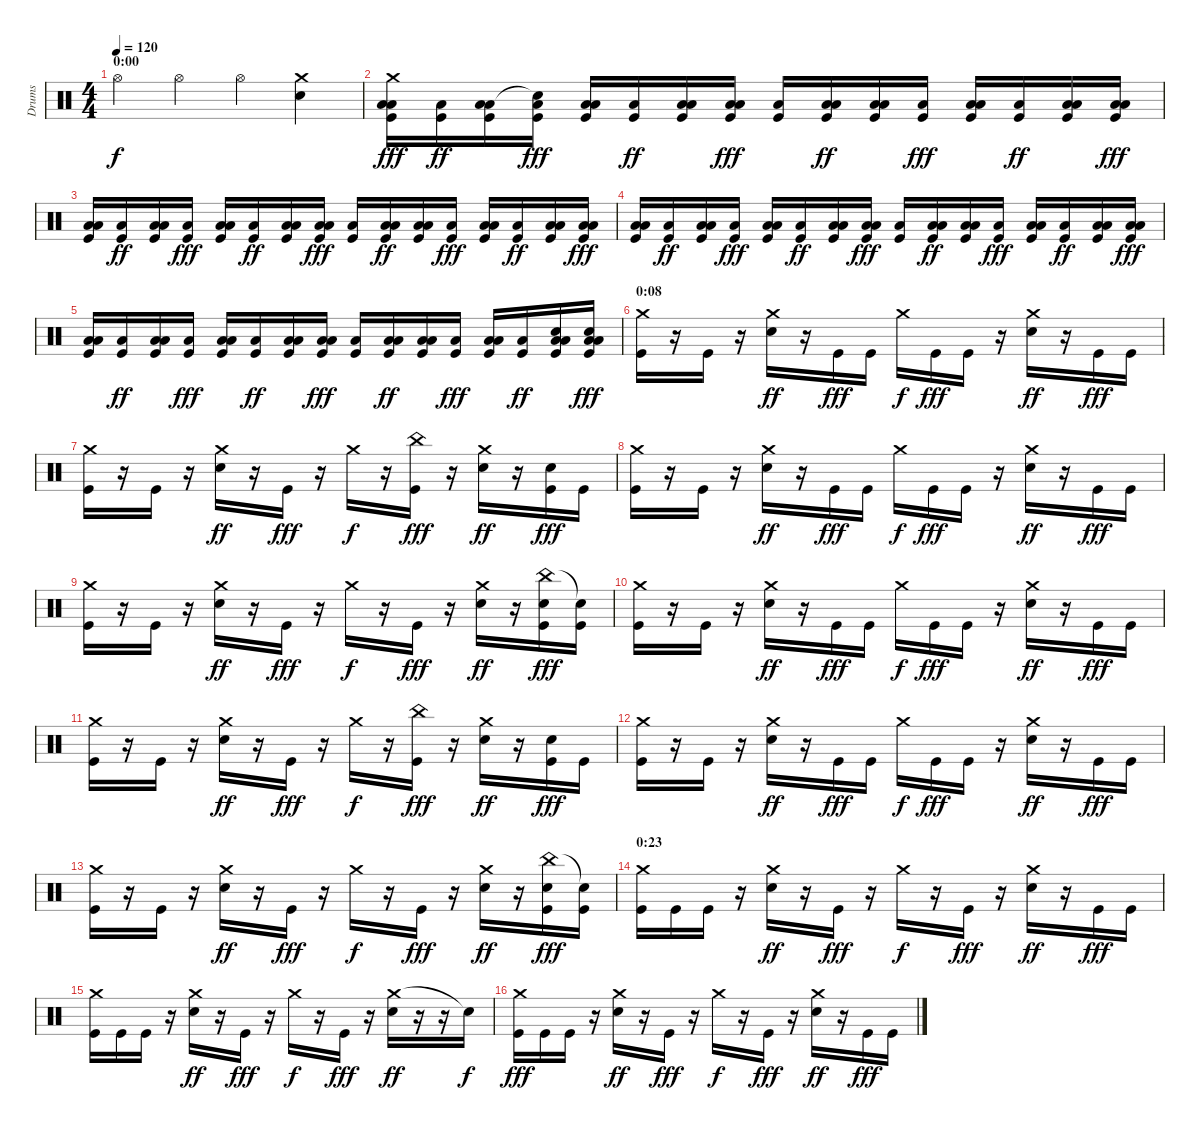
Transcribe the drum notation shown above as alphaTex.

\track ("Drums" "Drums") {instrument percussion}
\staff {score}
\articulation defaults
\ts (4 4)
\section ("" "0:00")
\tempo 120
\clef neutral
\ks c "Hi-Hat (open)".4{dy f} "Hi-Hat (open)".4 "Hi-Hat (open)".4
("Electric Snare (hit)" "Crash medium (hit)").4 |
("Crash medium (hit)" "Low Floor Tom (hit)" "Low Tom (hit)" "Kick (hit)").16{dy fff} ("Low Floor Tom (hit)" "Kick (hit)").16{dy ff} ("Low Floor Tom (hit)" "Low Floor Tom (hit)" "Kick (hit)").16 ("Snare (hit)"{t} "Low Floor Tom (hit)" "Kick (hit)").16{dy fff} ("Low Floor Tom (hit)" "Low Floor Tom (hit)" "Kick (hit)").16 ("Low Floor Tom (hit)" "Kick (hit)").16{dy ff} ("Low Floor Tom (hit)" "Low Floor Tom (hit)" "Kick (hit)").16 ("Low Floor Tom (hit)" "Low Floor Tom (hit)" "Kick (hit)").16{dy fff} ("Low Floor Tom (hit)" "Kick (hit)").16 ("Low Floor Tom (hit)" "Low Floor Tom (hit)" "Kick (hit)").16{dy ff} ("Low Floor Tom (hit)" "Low Floor Tom (hit)" "Kick (hit)").16 ("Low Floor Tom (hit)" "Kick (hit)").16{dy fff} ("Low Floor Tom (hit)" "Low Floor Tom (hit)" "Kick (hit)").16 ("Low Floor Tom (hit)" "Kick (hit)").16{dy ff} ("Low Floor Tom (hit)" "Low Floor Tom (hit)" "Kick (hit)").16 ("Low Floor Tom (hit)" "Low Floor Tom (hit)" "Kick (hit)").16{dy fff} |
("Low Floor Tom (hit)" "Low Tom (hit)" "Kick (hit)").16 ("Low Floor Tom (hit)" "Kick (hit)").16{dy ff} ("Low Floor Tom (hit)" "Low Floor Tom (hit)" "Kick (hit)").16 ("Low Floor Tom (hit)" "Kick (hit)").16{dy fff} ("Low Floor Tom (hit)" "Low Floor Tom (hit)" "Kick (hit)").16 ("Low Floor Tom (hit)" "Kick (hit)").16{dy ff} ("Low Floor Tom (hit)" "Low Floor Tom (hit)" "Kick (hit)").16 ("Low Floor Tom (hit)" "Low Floor Tom (hit)" "Kick (hit)").16{dy fff} ("Low Floor Tom (hit)" "Kick (hit)").16 ("Low Floor Tom (hit)" "Low Floor Tom (hit)" "Kick (hit)").16{dy ff} ("Low Floor Tom (hit)" "Low Floor Tom (hit)" "Kick (hit)").16 ("Low Floor Tom (hit)" "Kick (hit)").16{dy fff} ("Low Floor Tom (hit)" "Low Floor Tom (hit)" "Kick (hit)").16 ("Low Floor Tom (hit)" "Kick (hit)").16{dy ff} ("Low Floor Tom (hit)" "Low Floor Tom (hit)" "Kick (hit)").16 ("Low Floor Tom (hit)" "Low Floor Tom (hit)" "Kick (hit)").16{dy fff} |
("Low Floor Tom (hit)" "Low Tom (hit)" "Kick (hit)").16 ("Low Floor Tom (hit)" "Kick (hit)").16{dy ff} ("Low Floor Tom (hit)" "Low Floor Tom (hit)" "Kick (hit)").16 ("Low Floor Tom (hit)" "Kick (hit)").16{dy fff} ("Low Floor Tom (hit)" "Low Floor Tom (hit)" "Kick (hit)").16 ("Low Floor Tom (hit)" "Kick (hit)").16{dy ff} ("Low Floor Tom (hit)" "Low Floor Tom (hit)" "Kick (hit)").16 ("Low Floor Tom (hit)" "Low Floor Tom (hit)" "Kick (hit)").16{dy fff} ("Low Floor Tom (hit)" "Kick (hit)").16 ("Low Floor Tom (hit)" "Low Floor Tom (hit)" "Kick (hit)").16{dy ff} ("Low Floor Tom (hit)" "Low Floor Tom (hit)" "Kick (hit)").16 ("Low Floor Tom (hit)" "Kick (hit)").16{dy fff} ("Low Floor Tom (hit)" "Low Floor Tom (hit)" "Kick (hit)").16 ("Low Floor Tom (hit)" "Kick (hit)").16{dy ff} ("Low Floor Tom (hit)" "Low Floor Tom (hit)" "Kick (hit)").16 ("Low Floor Tom (hit)" "Low Floor Tom (hit)" "Kick (hit)").16{dy fff} |
("Low Floor Tom (hit)" "Low Tom (hit)" "Kick (hit)").16 ("Low Floor Tom (hit)" "Kick (hit)").16{dy ff} ("Low Floor Tom (hit)" "Low Floor Tom (hit)" "Kick (hit)").16 ("Low Floor Tom (hit)" "Kick (hit)").16{dy fff} ("Low Floor Tom (hit)" "Low Floor Tom (hit)" "Kick (hit)").16 ("Low Floor Tom (hit)" "Kick (hit)").16{dy ff} ("Low Floor Tom (hit)" "Low Floor Tom (hit)" "Kick (hit)").16 ("Low Floor Tom (hit)" "Low Floor Tom (hit)" "Kick (hit)").16{dy fff} ("Low Floor Tom (hit)" "Kick (hit)").16 ("Low Floor Tom (hit)" "Low Floor Tom (hit)" "Kick (hit)").16{dy ff} ("Low Floor Tom (hit)" "Low Floor Tom (hit)" "Kick (hit)").16 ("Low Floor Tom (hit)" "Kick (hit)").16{dy fff} ("Low Floor Tom (hit)" "Low Floor Tom (hit)" "Kick (hit)").16 ("Low Floor Tom (hit)" "Kick (hit)").16{dy ff} ("Snare (hit) 2" "Low Floor Tom (hit)" "Low Floor Tom (hit)" "Kick (hit)").16 ("Snare (hit) 2" "Low Floor Tom (hit)" "Low Floor Tom (hit)" "Kick (hit)").16{dy fff} |
\section ("" "0:08")
("Crash medium (hit)" "Kick (hit)").16 r.16 "Kick (hit)".16 r.16 ("Crash medium (hit)" "Electric Snare (hit)").16{dy ff} r.16 "Kick (hit)".16{dy fff} "Kick (hit)".16 "Crash medium (hit)".16{dy f} "Kick (hit)".16{dy fff} "Kick (hit)".16 r.16 ("Crash medium (hit)" "Electric Snare (hit)").16{dy ff} r.16 "Kick (hit)".16{dy fff} "Kick (hit)".16 |
("Crash medium (hit)" "Kick (hit)").16 r.16 "Kick (hit)".16 r.16 ("Crash medium (hit)" "Electric Snare (hit)").16{dy ff} r.16 "Kick (hit)".16{dy fff} r.16 "Crash medium (hit)".16{dy f} r.16 ("China (hit)" "Kick (hit)").16{dy fff} r.16 ("Crash medium (hit)" "Electric Snare (hit)").16{dy ff} r.16 ("Electric Snare (hit)" "Kick (hit)").16{dy fff} "Kick (hit)".16 |
("Crash medium (hit)" "Kick (hit)").16 r.16 "Kick (hit)".16 r.16 ("Crash medium (hit)" "Electric Snare (hit)").16{dy ff} r.16 "Kick (hit)".16{dy fff} "Kick (hit)".16 "Crash medium (hit)".16{dy f} "Kick (hit)".16{dy fff} "Kick (hit)".16 r.16 ("Crash medium (hit)" "Electric Snare (hit)").16{dy ff} r.16 "Kick (hit)".16{dy fff} "Kick (hit)".16 |
("Crash medium (hit)" "Kick (hit)").16 r.16 "Kick (hit)".16 r.16 ("Crash medium (hit)" "Electric Snare (hit)").16{dy ff} r.16 "Kick (hit)".16{dy fff} r.16 "Crash medium (hit)".16{dy f} r.16 "Kick (hit)".16{dy fff} r.16 ("Crash medium (hit)" "Electric Snare (hit)").16{dy ff} r.16 ("China (hit)" "Electric Snare (hit)" "Kick (hit)").16{dy fff} ("Snare (hit)"{t} "Kick (hit)").16 |
("Crash medium (hit)" "Kick (hit)").16 r.16 "Kick (hit)".16 r.16 ("Crash medium (hit)" "Electric Snare (hit)").16{dy ff} r.16 "Kick (hit)".16{dy fff} "Kick (hit)".16 "Crash medium (hit)".16{dy f} "Kick (hit)".16{dy fff} "Kick (hit)".16 r.16 ("Crash medium (hit)" "Electric Snare (hit)").16{dy ff} r.16 "Kick (hit)".16{dy fff} "Kick (hit)".16 |
("Crash medium (hit)" "Kick (hit)").16 r.16 "Kick (hit)".16 r.16 ("Crash medium (hit)" "Electric Snare (hit)").16{dy ff} r.16 "Kick (hit)".16{dy fff} r.16 "Crash medium (hit)".16{dy f} r.16 ("China (hit)" "Kick (hit)").16{dy fff} r.16 ("Crash medium (hit)" "Electric Snare (hit)").16{dy ff} r.16 ("Electric Snare (hit)" "Kick (hit)").16{dy fff} "Kick (hit)".16 |
("Crash medium (hit)" "Kick (hit)").16 r.16 "Kick (hit)".16 r.16 ("Crash medium (hit)" "Electric Snare (hit)").16{dy ff} r.16 "Kick (hit)".16{dy fff} "Kick (hit)".16 "Crash medium (hit)".16{dy f} "Kick (hit)".16{dy fff} "Kick (hit)".16 r.16 ("Crash medium (hit)" "Electric Snare (hit)").16{dy ff} r.16 "Kick (hit)".16{dy fff} "Kick (hit)".16 |
("Crash medium (hit)" "Kick (hit)").16 r.16 "Kick (hit)".16 r.16 ("Crash medium (hit)" "Electric Snare (hit)").16{dy ff} r.16 "Kick (hit)".16{dy fff} r.16 "Crash medium (hit)".16{dy f} r.16 "Kick (hit)".16{dy fff} r.16 ("Crash medium (hit)" "Electric Snare (hit)").16{dy ff} r.16 ("China (hit)" "Electric Snare (hit)" "Kick (hit)").16{dy fff} ("Snare (hit)"{t} "Kick (hit)").16 |
\section ("" "0:23")
("Crash medium (hit)" "Kick (hit)").16 "Kick (hit)".16 "Kick (hit)".16 r.16 ("Crash medium (hit)" "Electric Snare (hit)").16{dy ff} r.16 "Kick (hit)".16{dy fff} r.16 "Crash medium (hit)".16{dy f} r.16 "Kick (hit)".16{dy fff} r.16 ("Crash medium (hit)" "Electric Snare (hit)").16{dy ff} r.16 "Kick (hit)".16{dy fff} "Kick (hit)".16 |
("Crash medium (hit)" "Kick (hit)").16 "Kick (hit)".16 "Kick (hit)".16 r.16 ("Crash medium (hit)" "Electric Snare (hit)").16{dy ff} r.16 "Kick (hit)".16{dy fff} r.16 "Crash medium (hit)".16{dy f} r.16 "Kick (hit)".16{dy fff} r.16 ("Crash medium (hit)" "Electric Snare (hit)").16{dy ff} r.16 r.16 "Snare (hit)"{t}.16{dy f} |
("Crash medium (hit)" "Kick (hit)").16{dy fff} "Kick (hit)".16 "Kick (hit)".16 r.16 ("Crash medium (hit)" "Electric Snare (hit)").16{dy ff} r.16 "Kick (hit)".16{dy fff} r.16 "Crash medium (hit)".16{dy f} r.16 "Kick (hit)".16{dy fff} r.16 ("Crash medium (hit)" "Electric Snare (hit)").16{dy ff} r.16 "Kick (hit)".16{dy fff} "Kick (hit)".16
